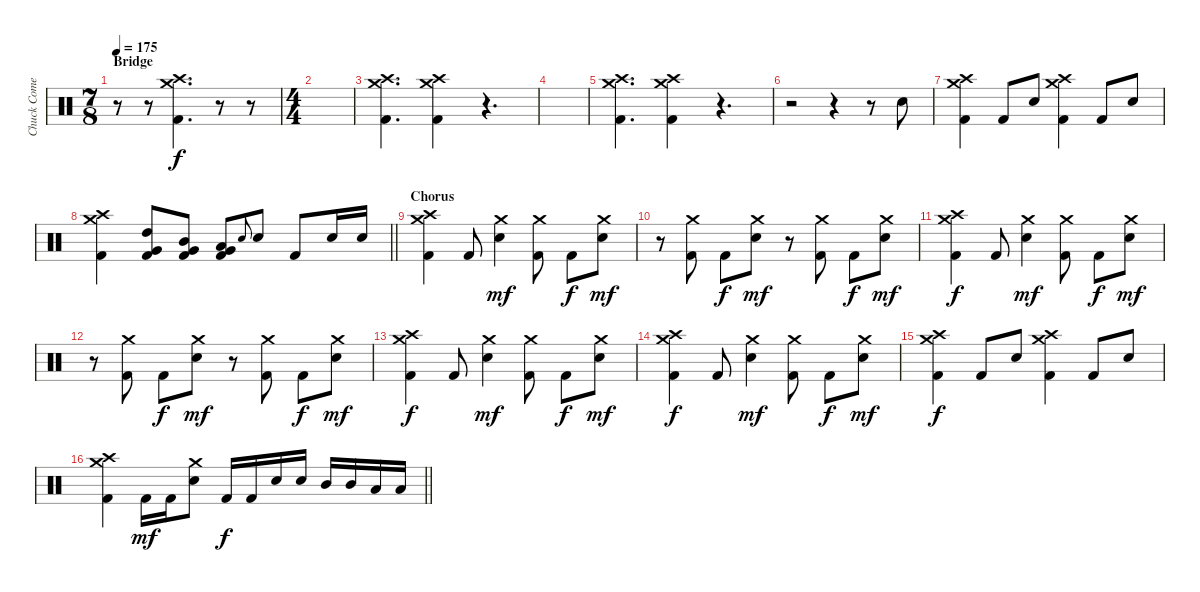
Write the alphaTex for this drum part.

\track ("Chuck Comeau" "Chuck Come") {instrument percussion}
\staff {score}
\articulation defaults
\ts (7 8)
\section ("" "Bridge")
\tempo 175
\clef neutral
\ks c
r.8{dy f} r.8 ("Crash high (hit)" "Crash medium (hit)" "Kick (hit) 2").4{d} r.8 r.8 |
\ts (4 4)
|
("Crash high (hit)" "Crash medium (hit)" "Kick (hit) 2").4{d} ("Crash high (hit)" "Crash medium (hit)" "Kick (hit) 2").4 r.4{d} |
|
("Crash high (hit)" "Crash medium (hit)" "Kick (hit) 2").4{d} ("Crash high (hit)" "Crash medium (hit)" "Kick (hit) 2").4 r.4{d} |
r.2 r.4 r.8 "Electric Snare (hit)".8 |
("Crash high (hit)" "Crash medium (hit)" "Kick (hit) 2").4 "Kick (hit) 2".8 "Electric Snare (hit)".8 ("Crash high (hit)" "Crash medium (hit)" "Kick (hit) 2").4 "Kick (hit) 2".8 "Electric Snare (hit)".8 |
\barLineRight lightlight
("Crash high (hit)" "Crash medium (hit)" "Kick (hit) 2").4 ("High Tom (hit)" "Very Low Tom (hit)" "Kick (hit) 2").8 ("Mid Tom (hit)" "Very Low Tom (hit)" "Kick (hit) 2").8 ("Low Tom (hit)" "Very Low Tom (hit)" "Kick (hit) 2").8 "Electric Snare (hit)"{h}.8{gr onbeat} "Electric Snare (hit)".8 "Kick (hit) 2".8 "Electric Snare (hit)".16 "Electric Snare (hit)".16 |
\section ("" "Chorus")
("Crash high (hit)" "Crash medium (hit)" "Kick (hit) 2").4 "Kick (hit) 2".8 ("Crash medium (hit)" "Electric Snare (hit)").4{dy mf} ("Crash medium (hit)" "Kick (hit) 2").8 "Kick (hit) 2".8{dy f} ("Crash medium (hit)" "Electric Snare (hit)").8{dy mf} |
r.8 ("Crash medium (hit)" "Kick (hit) 2").8 "Kick (hit) 2".8{dy f} ("Crash medium (hit)" "Electric Snare (hit)").8{dy mf} r.8 ("Crash medium (hit)" "Kick (hit) 2").8 "Kick (hit) 2".8{dy f} ("Crash medium (hit)" "Electric Snare (hit)").8{dy mf} |
("Crash high (hit)" "Crash medium (hit)" "Kick (hit) 2").4{dy f} "Kick (hit) 2".8 ("Crash medium (hit)" "Electric Snare (hit)").4{dy mf} ("Crash medium (hit)" "Kick (hit) 2").8 "Kick (hit) 2".8{dy f} ("Crash medium (hit)" "Electric Snare (hit)").8{dy mf} |
r.8 ("Crash medium (hit)" "Kick (hit) 2").8 "Kick (hit) 2".8{dy f} ("Crash medium (hit)" "Electric Snare (hit)").8{dy mf} r.8 ("Crash medium (hit)" "Kick (hit) 2").8 "Kick (hit) 2".8{dy f} ("Crash medium (hit)" "Electric Snare (hit)").8{dy mf} |
("Crash high (hit)" "Crash medium (hit)" "Kick (hit) 2").4{dy f} "Kick (hit) 2".8 ("Crash medium (hit)" "Electric Snare (hit)").4{dy mf} ("Crash medium (hit)" "Kick (hit) 2").8 "Kick (hit) 2".8{dy f} ("Crash medium (hit)" "Electric Snare (hit)").8{dy mf} |
("Crash high (hit)" "Crash medium (hit)" "Kick (hit) 2").4{dy f} "Kick (hit) 2".8 ("Crash medium (hit)" "Electric Snare (hit)").4{dy mf} ("Crash medium (hit)" "Kick (hit) 2").8 "Kick (hit) 2".8{dy f} ("Crash medium (hit)" "Electric Snare (hit)").8{dy mf} |
("Crash high (hit)" "Crash medium (hit)" "Kick (hit) 2").4{dy f} "Kick (hit) 2".8 "Electric Snare (hit)".8 ("Crash high (hit)" "Crash medium (hit)" "Kick (hit) 2").4 "Kick (hit) 2".8 "Electric Snare (hit)".8 |
\barLineRight lightlight
("Crash high (hit)" "Crash medium (hit)" "Kick (hit) 2").4 "Kick (hit) 2".16{dy mf} "Kick (hit) 2".16 ("Crash medium (hit)" "Electric Snare (hit)").8 "Kick (hit) 2".16{dy f} "Kick (hit) 2".16 "Electric Snare (hit)".16 "Electric Snare (hit)".16 "Mid Tom (hit)".16 "Mid Tom (hit)".16 "Low Tom (hit)".16 "Low Tom (hit)".16
